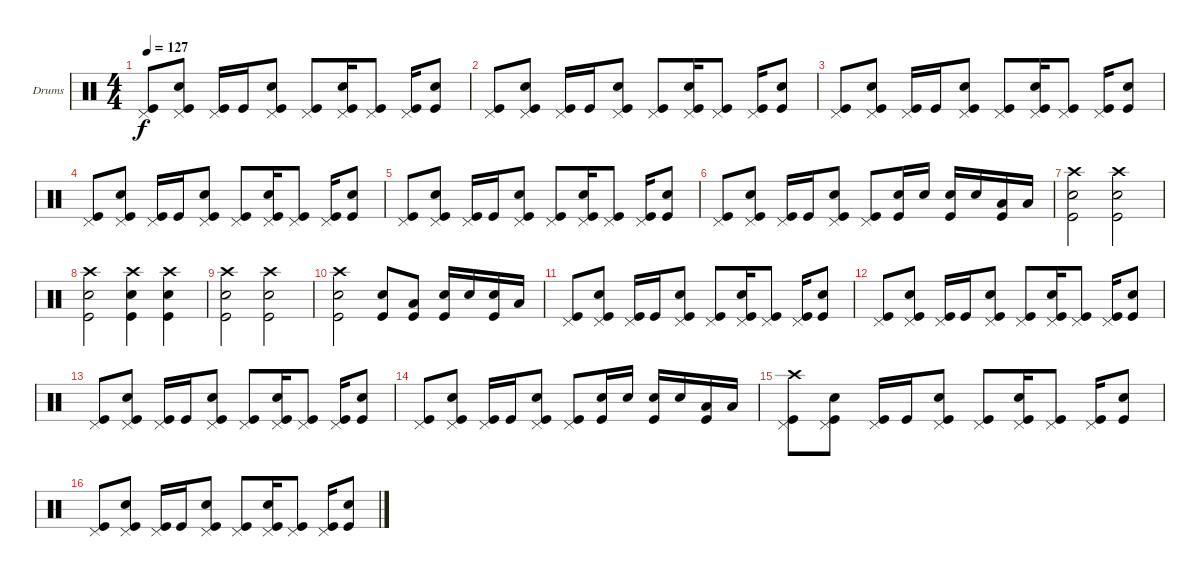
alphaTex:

\bracketExtendMode groupsimilarinstruments
\firstSystemTrackNameOrientation horizontal
\otherSystemsTrackNameOrientation horizontal
\track ("Drumkit" "Drums") {instrument percussion}
\staff {score}
\articulation defaults
\ts (4 4)
\tempo 127
\clef neutral
\ks c
("Pedal Hi-Hat (hit)" "Kick (hit)").8{dy f} ("Pedal Hi-Hat (hit)" "Snare (hit) 2" "Kick (hit)").8 ("Pedal Hi-Hat (hit)" "Kick (hit)").16 "Kick (hit)".16 ("Pedal Hi-Hat (hit)" "Snare (hit) 2" "Kick (hit)").8 ("Pedal Hi-Hat (hit)" "Kick (hit)").8 ("Pedal Hi-Hat (hit)" "Snare (hit) 2" "Kick (hit)").16 ("Pedal Hi-Hat (hit)" "Kick (hit)").8 ("Pedal Hi-Hat (hit)" "Kick (hit)").16 ("Snare (hit) 2" "Kick (hit)").8 |
("Pedal Hi-Hat (hit)" "Kick (hit)").8 ("Pedal Hi-Hat (hit)" "Snare (hit) 2" "Kick (hit)").8 ("Pedal Hi-Hat (hit)" "Kick (hit)").16 "Kick (hit)".16 ("Pedal Hi-Hat (hit)" "Snare (hit) 2" "Kick (hit)").8 ("Pedal Hi-Hat (hit)" "Kick (hit)").8 ("Pedal Hi-Hat (hit)" "Snare (hit) 2" "Kick (hit)").16 ("Pedal Hi-Hat (hit)" "Kick (hit)").8 ("Pedal Hi-Hat (hit)" "Kick (hit)").16 ("Snare (hit) 2" "Kick (hit)").8 |
("Pedal Hi-Hat (hit)" "Kick (hit)").8 ("Pedal Hi-Hat (hit)" "Snare (hit) 2" "Kick (hit)").8 ("Pedal Hi-Hat (hit)" "Kick (hit)").16 "Kick (hit)".16 ("Pedal Hi-Hat (hit)" "Snare (hit) 2" "Kick (hit)").8 ("Pedal Hi-Hat (hit)" "Kick (hit)").8 ("Pedal Hi-Hat (hit)" "Snare (hit) 2" "Kick (hit)").16 ("Pedal Hi-Hat (hit)" "Kick (hit)").8 ("Pedal Hi-Hat (hit)" "Kick (hit)").16 ("Snare (hit) 2" "Kick (hit)").8 |
("Pedal Hi-Hat (hit)" "Kick (hit)").8 ("Pedal Hi-Hat (hit)" "Snare (hit) 2" "Kick (hit)").8 ("Pedal Hi-Hat (hit)" "Kick (hit)").16 "Kick (hit)".16 ("Pedal Hi-Hat (hit)" "Snare (hit) 2" "Kick (hit)").8 ("Pedal Hi-Hat (hit)" "Kick (hit)").8 ("Pedal Hi-Hat (hit)" "Snare (hit) 2" "Kick (hit)").16 ("Pedal Hi-Hat (hit)" "Kick (hit)").8 ("Pedal Hi-Hat (hit)" "Kick (hit)").16 ("Snare (hit) 2" "Kick (hit)").8 |
("Pedal Hi-Hat (hit)" "Kick (hit)").8 ("Pedal Hi-Hat (hit)" "Snare (hit) 2" "Kick (hit)").8 ("Pedal Hi-Hat (hit)" "Kick (hit)").16 "Kick (hit)".16 ("Pedal Hi-Hat (hit)" "Snare (hit) 2" "Kick (hit)").8 ("Pedal Hi-Hat (hit)" "Kick (hit)").8 ("Pedal Hi-Hat (hit)" "Snare (hit) 2" "Kick (hit)").16 ("Pedal Hi-Hat (hit)" "Kick (hit)").8 ("Pedal Hi-Hat (hit)" "Kick (hit)").16 ("Snare (hit) 2" "Kick (hit)").8 |
("Pedal Hi-Hat (hit)" "Kick (hit)").8 ("Pedal Hi-Hat (hit)" "Snare (hit) 2" "Kick (hit)").8 ("Pedal Hi-Hat (hit)" "Kick (hit)").16 "Kick (hit)".16 ("Pedal Hi-Hat (hit)" "Snare (hit) 2" "Kick (hit)").8 ("Pedal Hi-Hat (hit)" "Kick (hit)").8 ("Snare (hit) 2" "Kick (hit)").16 "Snare (hit) 2".16 ("Snare (hit) 2" "Kick (hit)").16 "Snare (hit) 2".16 ("Kick (hit)" "Low Tom (hit)").16 "Low Tom (hit)".16 |
("Crash high (hit)" "Snare (hit) 2" "Kick (hit)").2 ("Crash high (hit)" "Snare (hit) 2" "Kick (hit)").2 |
("Crash high (hit)" "Snare (hit) 2" "Kick (hit)").2 ("Crash high (hit)" "Snare (hit) 2" "Kick (hit)").4 ("Crash high (hit)" "Snare (hit) 2" "Kick (hit)").4 |
("Crash high (hit)" "Snare (hit) 2" "Kick (hit)").2 ("Crash high (hit)" "Snare (hit) 2" "Kick (hit)").2 |
("Crash high (hit)" "Snare (hit) 2" "Kick (hit)").2 ("Snare (hit) 2" "Kick (hit)").8 ("Kick (hit)" "Low Tom (hit)").8 ("Snare (hit) 2" "Kick (hit)").16 "Snare (hit) 2".16 ("Snare (hit) 2" "Kick (hit)").16 "Low Tom (hit)".16 |
("Pedal Hi-Hat (hit)" "Kick (hit)").8 ("Pedal Hi-Hat (hit)" "Snare (hit) 2" "Kick (hit)").8 ("Pedal Hi-Hat (hit)" "Kick (hit)").16 "Kick (hit)".16 ("Pedal Hi-Hat (hit)" "Snare (hit) 2" "Kick (hit)").8 ("Pedal Hi-Hat (hit)" "Kick (hit)").8 ("Pedal Hi-Hat (hit)" "Snare (hit) 2" "Kick (hit)").16 ("Pedal Hi-Hat (hit)" "Kick (hit)").8 ("Pedal Hi-Hat (hit)" "Kick (hit)").16 ("Snare (hit) 2" "Kick (hit)").8 |
("Pedal Hi-Hat (hit)" "Kick (hit)").8 ("Pedal Hi-Hat (hit)" "Snare (hit) 2" "Kick (hit)").8 ("Pedal Hi-Hat (hit)" "Kick (hit)").16 "Kick (hit)".16 ("Pedal Hi-Hat (hit)" "Snare (hit) 2" "Kick (hit)").8 ("Pedal Hi-Hat (hit)" "Kick (hit)").8 ("Pedal Hi-Hat (hit)" "Snare (hit) 2" "Kick (hit)").16 ("Pedal Hi-Hat (hit)" "Kick (hit)").8 ("Pedal Hi-Hat (hit)" "Kick (hit)").16 ("Snare (hit) 2" "Kick (hit)").8 |
("Pedal Hi-Hat (hit)" "Kick (hit)").8 ("Pedal Hi-Hat (hit)" "Snare (hit) 2" "Kick (hit)").8 ("Pedal Hi-Hat (hit)" "Kick (hit)").16 "Kick (hit)".16 ("Pedal Hi-Hat (hit)" "Snare (hit) 2" "Kick (hit)").8 ("Pedal Hi-Hat (hit)" "Kick (hit)").8 ("Pedal Hi-Hat (hit)" "Snare (hit) 2" "Kick (hit)").16 ("Pedal Hi-Hat (hit)" "Kick (hit)").8 ("Pedal Hi-Hat (hit)" "Kick (hit)").16 ("Snare (hit) 2" "Kick (hit)").8 |
("Pedal Hi-Hat (hit)" "Kick (hit)").8 ("Pedal Hi-Hat (hit)" "Snare (hit) 2" "Kick (hit)").8 ("Pedal Hi-Hat (hit)" "Kick (hit)").16 "Kick (hit)".16 ("Pedal Hi-Hat (hit)" "Snare (hit) 2" "Kick (hit)").8 ("Pedal Hi-Hat (hit)" "Kick (hit)").8 ("Snare (hit) 2" "Kick (hit)").16 "Snare (hit) 2".16 ("Snare (hit) 2" "Kick (hit)").16 "Snare (hit) 2".16 ("Kick (hit)" "Low Tom (hit)").16 "Low Tom (hit)".16 |
("Pedal Hi-Hat (hit)" "Crash high (hit)" "Kick (hit)").8 ("Pedal Hi-Hat (hit)" "Snare (hit) 2" "Kick (hit)").8 ("Pedal Hi-Hat (hit)" "Kick (hit)").16 "Kick (hit)".16 ("Pedal Hi-Hat (hit)" "Snare (hit) 2" "Kick (hit)").8 ("Pedal Hi-Hat (hit)" "Kick (hit)").8 ("Pedal Hi-Hat (hit)" "Snare (hit) 2" "Kick (hit)").16 ("Pedal Hi-Hat (hit)" "Kick (hit)").8 ("Pedal Hi-Hat (hit)" "Kick (hit)").16 ("Snare (hit) 2" "Kick (hit)").8 |
("Pedal Hi-Hat (hit)" "Kick (hit)").8 ("Pedal Hi-Hat (hit)" "Snare (hit) 2" "Kick (hit)").8 ("Pedal Hi-Hat (hit)" "Kick (hit)").16 "Kick (hit)".16 ("Pedal Hi-Hat (hit)" "Snare (hit) 2" "Kick (hit)").8 ("Pedal Hi-Hat (hit)" "Kick (hit)").8 ("Pedal Hi-Hat (hit)" "Snare (hit) 2" "Kick (hit)").16 ("Pedal Hi-Hat (hit)" "Kick (hit)").8 ("Pedal Hi-Hat (hit)" "Kick (hit)").16 ("Snare (hit) 2" "Kick (hit)").8
